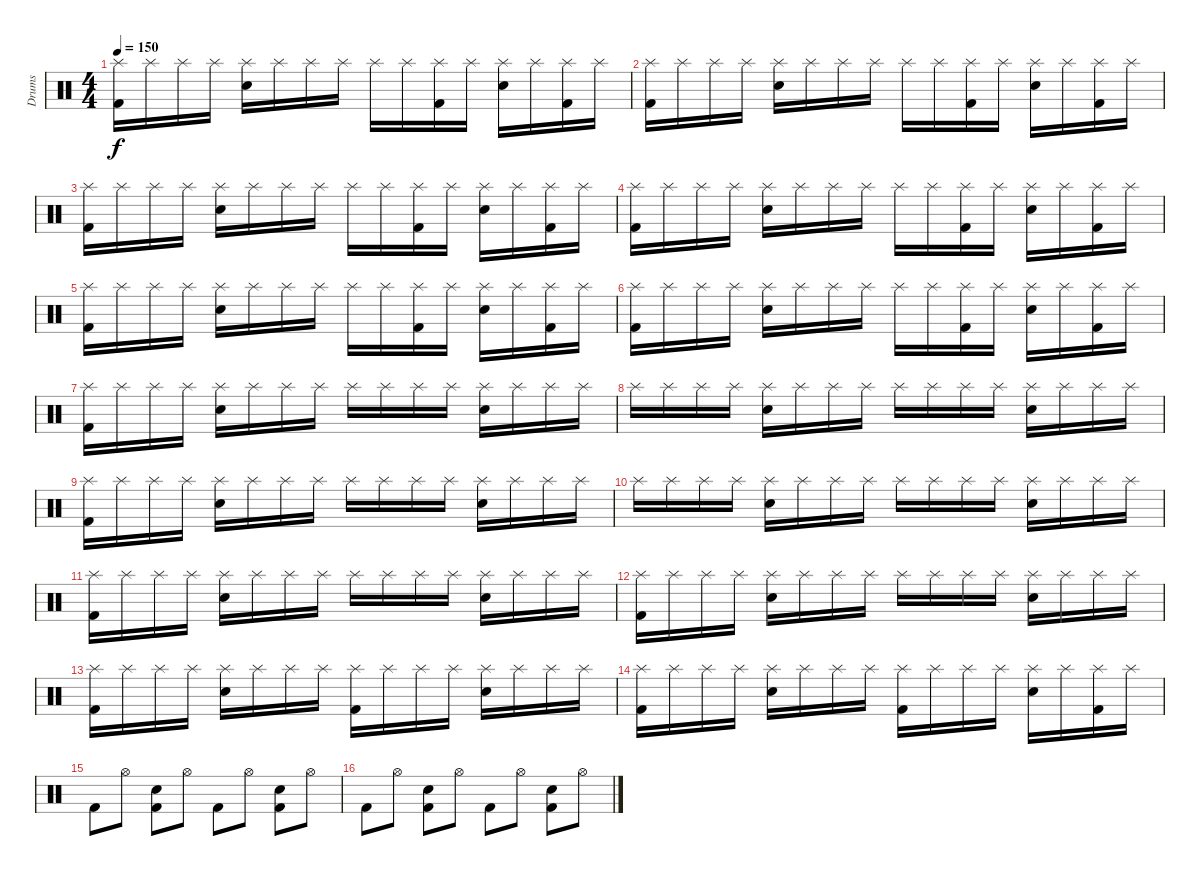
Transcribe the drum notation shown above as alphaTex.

\track ("Drums" "Drums") {instrument percussion}
\staff {score}
\articulation defaults
\ts (4 4)
\tempo 150
\clef neutral
\ks c
("Splash (hit)" "Kick (hit) 2").16{dy f} "Splash (hit)".16 "Splash (hit)".16 "Splash (hit)".16 ("Splash (hit)" "Snare (hit) 2").16 "Splash (hit)".16 "Splash (hit)".16 "Splash (hit)".16 "Splash (hit)".16 "Splash (hit)".16 ("Splash (hit)" "Kick (hit) 2").16 "Splash (hit)".16 ("Splash (hit)" "Snare (hit) 2").16 "Splash (hit)".16 ("Splash (hit)" "Kick (hit) 2").16 "Splash (hit)".16 |
("Splash (hit)" "Kick (hit) 2").16 "Splash (hit)".16 "Splash (hit)".16 "Splash (hit)".16 ("Splash (hit)" "Snare (hit) 2").16 "Splash (hit)".16 "Splash (hit)".16 "Splash (hit)".16 "Splash (hit)".16 "Splash (hit)".16 ("Splash (hit)" "Kick (hit) 2").16 "Splash (hit)".16 ("Splash (hit)" "Snare (hit) 2").16 "Splash (hit)".16 ("Splash (hit)" "Kick (hit) 2").16 "Splash (hit)".16 |
("Splash (hit)" "Kick (hit) 2").16 "Splash (hit)".16 "Splash (hit)".16 "Splash (hit)".16 ("Splash (hit)" "Snare (hit) 2").16 "Splash (hit)".16 "Splash (hit)".16 "Splash (hit)".16 "Splash (hit)".16 "Splash (hit)".16 ("Splash (hit)" "Kick (hit) 2").16 "Splash (hit)".16 ("Splash (hit)" "Snare (hit) 2").16 "Splash (hit)".16 ("Splash (hit)" "Kick (hit) 2").16 "Splash (hit)".16 |
("Splash (hit)" "Kick (hit) 2").16 "Splash (hit)".16 "Splash (hit)".16 "Splash (hit)".16 ("Splash (hit)" "Snare (hit) 2").16 "Splash (hit)".16 "Splash (hit)".16 "Splash (hit)".16 "Splash (hit)".16 "Splash (hit)".16 ("Splash (hit)" "Kick (hit) 2").16 "Splash (hit)".16 ("Splash (hit)" "Snare (hit) 2").16 "Splash (hit)".16 ("Splash (hit)" "Kick (hit) 2").16 "Splash (hit)".16 |
("Splash (hit)" "Kick (hit) 2").16 "Splash (hit)".16 "Splash (hit)".16 "Splash (hit)".16 ("Splash (hit)" "Snare (hit) 2").16 "Splash (hit)".16 "Splash (hit)".16 "Splash (hit)".16 "Splash (hit)".16 "Splash (hit)".16 ("Splash (hit)" "Kick (hit) 2").16 "Splash (hit)".16 ("Splash (hit)" "Snare (hit) 2").16 "Splash (hit)".16 ("Splash (hit)" "Kick (hit) 2").16 "Splash (hit)".16 |
("Splash (hit)" "Kick (hit) 2").16 "Splash (hit)".16 "Splash (hit)".16 "Splash (hit)".16 ("Splash (hit)" "Snare (hit) 2").16 "Splash (hit)".16 "Splash (hit)".16 "Splash (hit)".16 "Splash (hit)".16 "Splash (hit)".16 ("Splash (hit)" "Kick (hit) 2").16 "Splash (hit)".16 ("Splash (hit)" "Snare (hit) 2").16 "Splash (hit)".16 ("Splash (hit)" "Kick (hit) 2").16 "Splash (hit)".16 |
("Splash (hit)" "Kick (hit) 2").16 "Splash (hit)".16 "Splash (hit)".16 "Splash (hit)".16 ("Splash (hit)" "Snare (hit) 2").16 "Splash (hit)".16 "Splash (hit)".16 "Splash (hit)".16 "Splash (hit)".16 "Splash (hit)".16 "Splash (hit)".16 "Splash (hit)".16 ("Splash (hit)" "Snare (hit) 2").16 "Splash (hit)".16 "Splash (hit)".16 "Splash (hit)".16 |
"Splash (hit)".16 "Splash (hit)".16 "Splash (hit)".16 "Splash (hit)".16 ("Splash (hit)" "Snare (hit) 2").16 "Splash (hit)".16 "Splash (hit)".16 "Splash (hit)".16 "Splash (hit)".16 "Splash (hit)".16 "Splash (hit)".16 "Splash (hit)".16 ("Splash (hit)" "Snare (hit) 2").16 "Splash (hit)".16 "Splash (hit)".16 "Splash (hit)".16 |
("Splash (hit)" "Kick (hit) 2").16 "Splash (hit)".16 "Splash (hit)".16 "Splash (hit)".16 ("Splash (hit)" "Snare (hit) 2").16 "Splash (hit)".16 "Splash (hit)".16 "Splash (hit)".16 "Splash (hit)".16 "Splash (hit)".16 "Splash (hit)".16 "Splash (hit)".16 ("Splash (hit)" "Snare (hit) 2").16 "Splash (hit)".16 "Splash (hit)".16 "Splash (hit)".16 |
"Splash (hit)".16 "Splash (hit)".16 "Splash (hit)".16 "Splash (hit)".16 ("Splash (hit)" "Snare (hit) 2").16 "Splash (hit)".16 "Splash (hit)".16 "Splash (hit)".16 "Splash (hit)".16 "Splash (hit)".16 "Splash (hit)".16 "Splash (hit)".16 ("Splash (hit)" "Snare (hit) 2").16 "Splash (hit)".16 "Splash (hit)".16 "Splash (hit)".16 |
("Splash (hit)" "Kick (hit) 2").16 "Splash (hit)".16 "Splash (hit)".16 "Splash (hit)".16 ("Splash (hit)" "Snare (hit) 2").16 "Splash (hit)".16 "Splash (hit)".16 "Splash (hit)".16 "Splash (hit)".16 "Splash (hit)".16 "Splash (hit)".16 "Splash (hit)".16 ("Splash (hit)" "Snare (hit) 2").16 "Splash (hit)".16 "Splash (hit)".16 "Splash (hit)".16 |
("Splash (hit)" "Kick (hit) 2").16 "Splash (hit)".16 "Splash (hit)".16 "Splash (hit)".16 ("Splash (hit)" "Snare (hit) 2").16 "Splash (hit)".16 "Splash (hit)".16 "Splash (hit)".16 "Splash (hit)".16 "Splash (hit)".16 "Splash (hit)".16 "Splash (hit)".16 ("Splash (hit)" "Snare (hit) 2").16 "Splash (hit)".16 "Splash (hit)".16 "Splash (hit)".16 |
("Splash (hit)" "Kick (hit) 2").16 "Splash (hit)".16 "Splash (hit)".16 "Splash (hit)".16 ("Splash (hit)" "Snare (hit) 2").16 "Splash (hit)".16 "Splash (hit)".16 "Splash (hit)".16 ("Splash (hit)" "Kick (hit) 2").16 "Splash (hit)".16 "Splash (hit)".16 "Splash (hit)".16 ("Splash (hit)" "Snare (hit) 2").16 "Splash (hit)".16 "Splash (hit)".16 "Splash (hit)".16 |
("Splash (hit)" "Kick (hit) 2").16 "Splash (hit)".16 "Splash (hit)".16 "Splash (hit)".16 ("Splash (hit)" "Snare (hit) 2").16 "Splash (hit)".16 "Splash (hit)".16 "Splash (hit)".16 ("Splash (hit)" "Kick (hit) 2").16 "Splash (hit)".16 "Splash (hit)".16 "Splash (hit)".16 ("Splash (hit)" "Snare (hit) 2").16 "Splash (hit)".16 ("Splash (hit)" "Kick (hit) 2").16 "Splash (hit)".16 |
"Kick (hit) 2".8 "Hi-Hat (open)".8 ("Snare (hit) 2" "Kick (hit) 2").8 "Hi-Hat (open)".8 "Kick (hit) 2".8 "Hi-Hat (open)".8 ("Snare (hit) 2" "Kick (hit) 2").8 "Hi-Hat (open)".8 |
"Kick (hit) 2".8 "Hi-Hat (open)".8 ("Snare (hit) 2" "Kick (hit) 2").8 "Hi-Hat (open)".8 "Kick (hit) 2".8 "Hi-Hat (open)".8 ("Snare (hit) 2" "Kick (hit) 2").8 "Hi-Hat (open)".8
